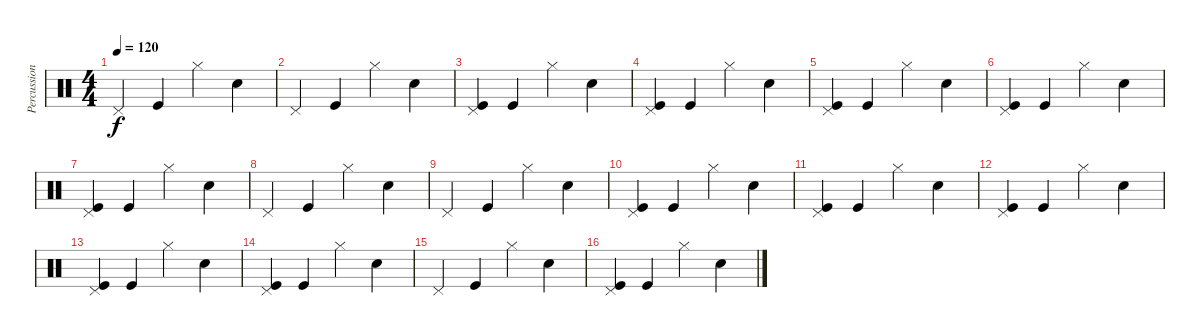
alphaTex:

\track ("Percussion" "Percussion") {instrument percussion}
\staff {score}
\articulation defaults
\ts (4 4)
\tempo 120
\clef neutral
\ks c "Pedal Hi-Hat (hit)".4{dy f} "Kick (hit)".4 "Hi-Hat (closed)".4 "Snare (hit) 2".4
|
"Pedal Hi-Hat (hit)".4 "Kick (hit)".4 "Hi-Hat (closed)".4 "Snare (hit) 2".4 |
("Pedal Hi-Hat (hit)" "Kick (hit)").4 "Kick (hit)".4 "Hi-Hat (closed)".4 "Snare (hit) 2".4 |
("Pedal Hi-Hat (hit)" "Kick (hit)").4 "Kick (hit)".4 "Hi-Hat (closed)".4 "Snare (hit) 2".4 |
("Pedal Hi-Hat (hit)" "Kick (hit)").4 "Kick (hit)".4 "Hi-Hat (closed)".4 "Snare (hit) 2".4 |
("Pedal Hi-Hat (hit)" "Kick (hit)").4 "Kick (hit)".4 "Hi-Hat (closed)".4 "Snare (hit) 2".4 |
("Pedal Hi-Hat (hit)" "Kick (hit)").4 "Kick (hit)".4 "Hi-Hat (closed)".4 "Snare (hit) 2".4 |
"Pedal Hi-Hat (hit)".4 "Kick (hit)".4 "Hi-Hat (closed)".4 "Snare (hit) 2".4 |
"Pedal Hi-Hat (hit)".4 "Kick (hit)".4 "Hi-Hat (closed)".4 "Snare (hit) 2".4 |
("Pedal Hi-Hat (hit)" "Kick (hit)").4 "Kick (hit)".4 "Hi-Hat (closed)".4 "Snare (hit) 2".4 |
("Pedal Hi-Hat (hit)" "Kick (hit)").4 "Kick (hit)".4 "Hi-Hat (closed)".4 "Snare (hit) 2".4 |
("Pedal Hi-Hat (hit)" "Kick (hit)").4 "Kick (hit)".4 "Hi-Hat (closed)".4 "Snare (hit) 2".4 |
("Pedal Hi-Hat (hit)" "Kick (hit)").4 "Kick (hit)".4 "Hi-Hat (closed)".4 "Snare (hit) 2".4 |
("Pedal Hi-Hat (hit)" "Kick (hit)").4 "Kick (hit)".4 "Hi-Hat (closed)".4 "Snare (hit) 2".4 |
"Pedal Hi-Hat (hit)".4 "Kick (hit)".4 "Hi-Hat (closed)".4 "Snare (hit) 2".4 |
("Pedal Hi-Hat (hit)" "Kick (hit)").4 "Kick (hit)".4 "Hi-Hat (closed)".4 "Snare (hit) 2".4
